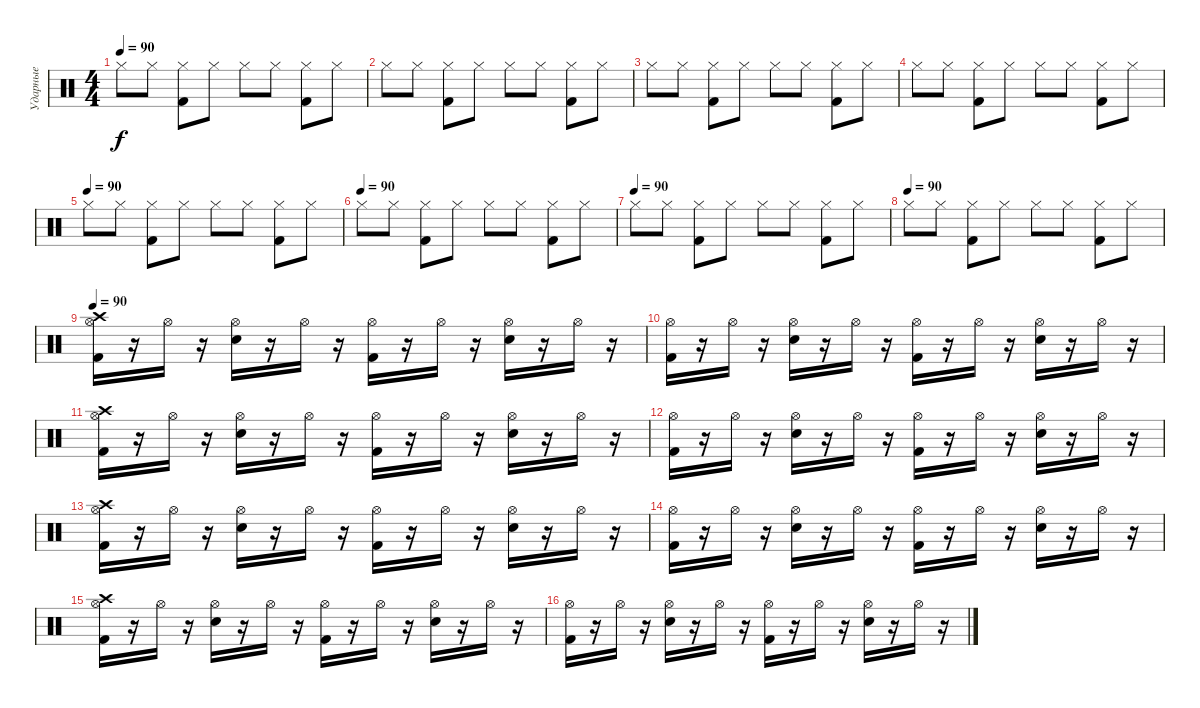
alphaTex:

\track ("Ударные" "Ударные") {instrument percussion}
\staff {score}
\articulation defaults
\ts (4 4)
\tempo 90
\clef neutral
\ks c "Hi-Hat (closed)".8{dy f} "Hi-Hat (closed)".8
("Hi-Hat (closed)" "Kick (hit) 2").8 "Hi-Hat (closed)".8 "Hi-Hat (closed)".8 "Hi-Hat (closed)".8 ("Hi-Hat (closed)" "Kick (hit) 2").8 "Hi-Hat (closed)".8 |
"Hi-Hat (closed)".8 "Hi-Hat (closed)".8 ("Hi-Hat (closed)" "Kick (hit) 2").8 "Hi-Hat (closed)".8 "Hi-Hat (closed)".8 "Hi-Hat (closed)".8 ("Hi-Hat (closed)" "Kick (hit) 2").8 "Hi-Hat (closed)".8 |
"Hi-Hat (closed)".8 "Hi-Hat (closed)".8 ("Hi-Hat (closed)" "Kick (hit) 2").8 "Hi-Hat (closed)".8 "Hi-Hat (closed)".8 "Hi-Hat (closed)".8 ("Hi-Hat (closed)" "Kick (hit) 2").8 "Hi-Hat (closed)".8 |
"Hi-Hat (closed)".8 "Hi-Hat (closed)".8 ("Hi-Hat (closed)" "Kick (hit) 2").8 "Hi-Hat (closed)".8 "Hi-Hat (closed)".8 "Hi-Hat (closed)".8 ("Hi-Hat (closed)" "Kick (hit) 2").8 "Hi-Hat (closed)".8 |
\tempo (90)
"Hi-Hat (closed)".8 "Hi-Hat (closed)".8 ("Hi-Hat (closed)" "Kick (hit) 2").8 "Hi-Hat (closed)".8 "Hi-Hat (closed)".8 "Hi-Hat (closed)".8 ("Hi-Hat (closed)" "Kick (hit) 2").8 "Hi-Hat (closed)".8 |
\tempo (90)
"Hi-Hat (closed)".8 "Hi-Hat (closed)".8 ("Hi-Hat (closed)" "Kick (hit) 2").8 "Hi-Hat (closed)".8 "Hi-Hat (closed)".8 "Hi-Hat (closed)".8 ("Hi-Hat (closed)" "Kick (hit) 2").8 "Hi-Hat (closed)".8 |
\tempo (90)
"Hi-Hat (closed)".8 "Hi-Hat (closed)".8 ("Hi-Hat (closed)" "Kick (hit) 2").8 "Hi-Hat (closed)".8 "Hi-Hat (closed)".8 "Hi-Hat (closed)".8 ("Hi-Hat (closed)" "Kick (hit) 2").8 "Hi-Hat (closed)".8 |
\tempo (90)
"Hi-Hat (closed)".8 "Hi-Hat (closed)".8 ("Hi-Hat (closed)" "Kick (hit) 2").8 "Hi-Hat (closed)".8 "Hi-Hat (closed)".8 "Hi-Hat (closed)".8 ("Hi-Hat (closed)" "Kick (hit) 2").8 "Hi-Hat (closed)".8 |
\tempo 90
("Kick (hit) 2" "Crash high (hit)" "Hi-Hat (open)").16 r.16 "Hi-Hat (open)".16 r.16 ("Snare (hit) 2" "Hi-Hat (open)").16 r.16 "Hi-Hat (open)".16 r.16 ("Kick (hit) 2" "Hi-Hat (open)").16 r.16 "Hi-Hat (open)".16 r.16 ("Snare (hit) 2" "Hi-Hat (open)").16 r.16 "Hi-Hat (open)".16 r.16 |
("Kick (hit) 2" "Hi-Hat (open)").16 r.16 "Hi-Hat (open)".16 r.16 ("Snare (hit) 2" "Hi-Hat (open)").16 r.16 "Hi-Hat (open)".16 r.16 ("Kick (hit) 2" "Hi-Hat (open)").16 r.16 "Hi-Hat (open)".16 r.16 ("Snare (hit) 2" "Hi-Hat (open)").16 r.16 "Hi-Hat (open)".16 r.16 |
("Kick (hit) 2" "Crash high (hit)" "Hi-Hat (open)").16 r.16 "Hi-Hat (open)".16 r.16 ("Snare (hit) 2" "Hi-Hat (open)").16 r.16 "Hi-Hat (open)".16 r.16 ("Kick (hit) 2" "Hi-Hat (open)").16 r.16 "Hi-Hat (open)".16 r.16 ("Snare (hit) 2" "Hi-Hat (open)").16 r.16 "Hi-Hat (open)".16 r.16 |
("Kick (hit) 2" "Hi-Hat (open)").16 r.16 "Hi-Hat (open)".16 r.16 ("Snare (hit) 2" "Hi-Hat (open)").16 r.16 "Hi-Hat (open)".16 r.16 ("Kick (hit) 2" "Hi-Hat (open)").16 r.16 "Hi-Hat (open)".16 r.16 ("Snare (hit) 2" "Hi-Hat (open)").16 r.16 "Hi-Hat (open)".16 r.16 |
("Kick (hit) 2" "Crash high (hit)" "Hi-Hat (open)").16 r.16 "Hi-Hat (open)".16 r.16 ("Snare (hit) 2" "Hi-Hat (open)").16 r.16 "Hi-Hat (open)".16 r.16 ("Kick (hit) 2" "Hi-Hat (open)").16 r.16 "Hi-Hat (open)".16 r.16 ("Snare (hit) 2" "Hi-Hat (open)").16 r.16 "Hi-Hat (open)".16 r.16 |
("Kick (hit) 2" "Hi-Hat (open)").16 r.16 "Hi-Hat (open)".16 r.16 ("Snare (hit) 2" "Hi-Hat (open)").16 r.16 "Hi-Hat (open)".16 r.16 ("Kick (hit) 2" "Hi-Hat (open)").16 r.16 "Hi-Hat (open)".16 r.16 ("Snare (hit) 2" "Hi-Hat (open)").16 r.16 "Hi-Hat (open)".16 r.16 |
("Kick (hit) 2" "Crash high (hit)" "Hi-Hat (open)").16 r.16 "Hi-Hat (open)".16 r.16 ("Snare (hit) 2" "Hi-Hat (open)").16 r.16 "Hi-Hat (open)".16 r.16 ("Kick (hit) 2" "Hi-Hat (open)").16 r.16 "Hi-Hat (open)".16 r.16 ("Snare (hit) 2" "Hi-Hat (open)").16 r.16 "Hi-Hat (open)".16 r.16 |
("Kick (hit) 2" "Hi-Hat (open)").16 r.16 "Hi-Hat (open)".16 r.16 ("Snare (hit) 2" "Hi-Hat (open)").16 r.16 "Hi-Hat (open)".16 r.16 ("Kick (hit) 2" "Hi-Hat (open)").16 r.16 "Hi-Hat (open)".16 r.16 ("Snare (hit) 2" "Hi-Hat (open)").16 r.16 "Hi-Hat (open)".16 r.16
